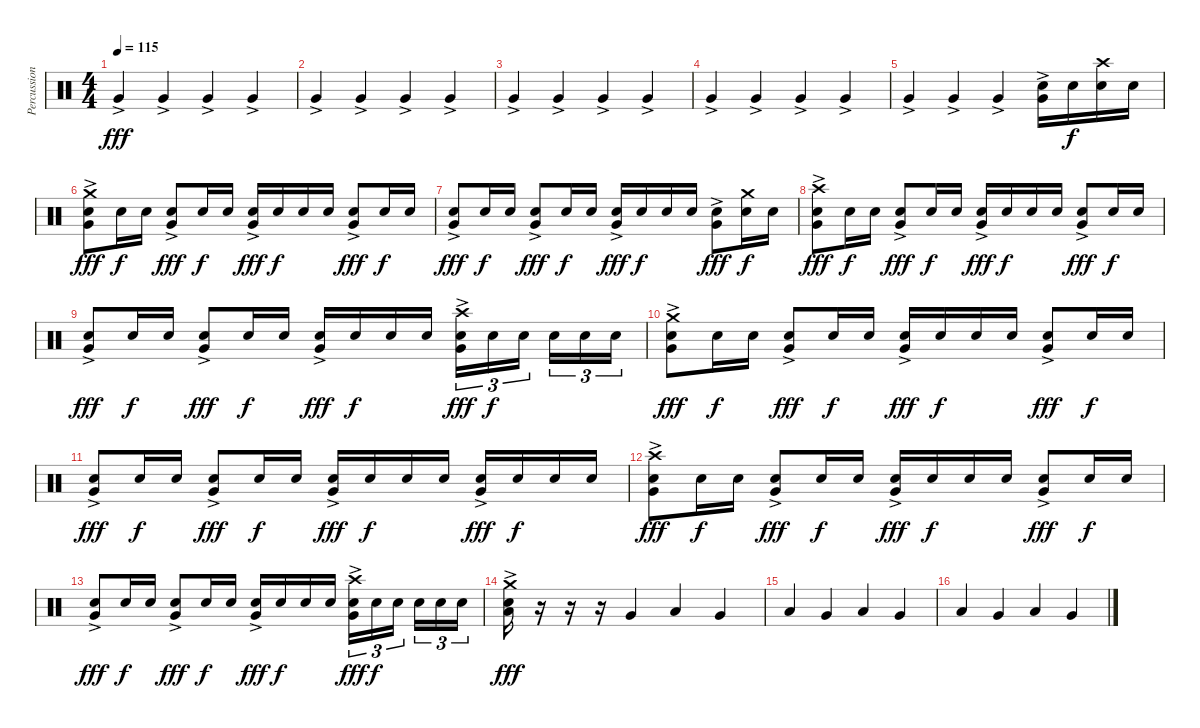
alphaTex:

\track ("Percussions" "Percussion") {instrument percussion}
\staff {score}
\articulation defaults
\ts (4 4)
\tempo 115
\clef neutral
\ks c "Very Low Tom (hit)"{ac}.4{dy fff} "Very Low Tom (hit)"{ac}.4 "Very Low Tom (hit)"{ac}.4 "Very Low Tom (hit)"{ac}.4
|
"Very Low Tom (hit)"{ac}.4 "Very Low Tom (hit)"{ac}.4 "Very Low Tom (hit)"{ac}.4 "Very Low Tom (hit)"{ac}.4 |
"Very Low Tom (hit)"{ac}.4 "Very Low Tom (hit)"{ac}.4 "Very Low Tom (hit)"{ac}.4 "Very Low Tom (hit)"{ac}.4 |
"Very Low Tom (hit)"{ac}.4 "Very Low Tom (hit)"{ac}.4 "Very Low Tom (hit)"{ac}.4 "Very Low Tom (hit)"{ac}.4 |
"Very Low Tom (hit)"{ac}.4 "Very Low Tom (hit)"{ac}.4 "Very Low Tom (hit)"{ac}.4 ("Electric Snare (hit)" "Very Low Tom (hit)"{ac}).16 "Electric Snare (hit)".16{dy f} ("Crash high (hit)" "Electric Snare (hit)").16 "Electric Snare (hit)".16 |
\section ("" "")
("Crash medium (hit)" "Electric Snare (hit)" "Very Low Tom (hit)"{ac}).8{dy fff} "Electric Snare (hit)".16{dy f} "Electric Snare (hit)".16 ("Electric Snare (hit)" "Very Low Tom (hit)"{ac}).8{dy fff} "Electric Snare (hit)".16{dy f} "Electric Snare (hit)".16 ("Electric Snare (hit)" "Very Low Tom (hit)"{ac}).16{dy fff} "Electric Snare (hit)".16{dy f} "Electric Snare (hit)".16 "Electric Snare (hit)".16 ("Electric Snare (hit)" "Very Low Tom (hit)"{ac}).8{dy fff} "Electric Snare (hit)".16{dy f} "Electric Snare (hit)".16 |
("Electric Snare (hit)" "Very Low Tom (hit)"{ac}).8{dy fff} "Electric Snare (hit)".16{dy f} "Electric Snare (hit)".16 ("Electric Snare (hit)" "Very Low Tom (hit)"{ac}).8{dy fff} "Electric Snare (hit)".16{dy f} "Electric Snare (hit)".16 ("Electric Snare (hit)" "Very Low Tom (hit)"{ac}).16{dy fff} "Electric Snare (hit)".16{dy f} "Electric Snare (hit)".16 "Electric Snare (hit)".16 ("Electric Snare (hit)" "Very Low Tom (hit)"{ac}).8{dy fff} ("Crash medium (hit)" "Electric Snare (hit)").16{dy f} "Electric Snare (hit)".16 |
("Crash high (hit)" "Electric Snare (hit)" "Very Low Tom (hit)"{ac}).8{dy fff} "Electric Snare (hit)".16{dy f} "Electric Snare (hit)".16 ("Electric Snare (hit)" "Very Low Tom (hit)"{ac}).8{dy fff} "Electric Snare (hit)".16{dy f} "Electric Snare (hit)".16 ("Electric Snare (hit)" "Very Low Tom (hit)"{ac}).16{dy fff} "Electric Snare (hit)".16{dy f} "Electric Snare (hit)".16 "Electric Snare (hit)".16 ("Electric Snare (hit)" "Very Low Tom (hit)"{ac}).8{dy fff} "Electric Snare (hit)".16{dy f} "Electric Snare (hit)".16 |
("Electric Snare (hit)" "Very Low Tom (hit)"{ac}).8{dy fff} "Electric Snare (hit)".16{dy f} "Electric Snare (hit)".16 ("Electric Snare (hit)" "Very Low Tom (hit)"{ac}).8{dy fff} "Electric Snare (hit)".16{dy f} "Electric Snare (hit)".16 ("Electric Snare (hit)" "Very Low Tom (hit)"{ac}).16{dy fff} "Electric Snare (hit)".16{dy f} "Electric Snare (hit)".16 "Electric Snare (hit)".16 ("Crash high (hit)" "Electric Snare (hit)" "Very Low Tom (hit)"{ac}).16{tu (3 2) dy fff} "Electric Snare (hit)".16{tu (3 2) dy f} "Electric Snare (hit)".16{tu (3 2)} "Electric Snare (hit)".16{tu (3 2)} "Electric Snare (hit)".16{tu (3 2)} "Electric Snare (hit)".16{tu (3 2)} |
("Crash medium (hit)" "Electric Snare (hit)" "Very Low Tom (hit)"{ac}).8{dy fff} "Electric Snare (hit)".16{dy f} "Electric Snare (hit)".16 ("Electric Snare (hit)" "Very Low Tom (hit)"{ac}).8{dy fff} "Electric Snare (hit)".16{dy f} "Electric Snare (hit)".16 ("Electric Snare (hit)" "Very Low Tom (hit)"{ac}).16{dy fff} "Electric Snare (hit)".16{dy f} "Electric Snare (hit)".16 "Electric Snare (hit)".16 ("Electric Snare (hit)" "Very Low Tom (hit)"{ac}).8{dy fff} "Electric Snare (hit)".16{dy f} "Electric Snare (hit)".16 |
("Electric Snare (hit)" "Very Low Tom (hit)"{ac}).8{dy fff} "Electric Snare (hit)".16{dy f} "Electric Snare (hit)".16 ("Electric Snare (hit)" "Very Low Tom (hit)"{ac}).8{dy fff} "Electric Snare (hit)".16{dy f} "Electric Snare (hit)".16 ("Electric Snare (hit)" "Very Low Tom (hit)"{ac}).16{dy fff} "Electric Snare (hit)".16{dy f} "Electric Snare (hit)".16 "Electric Snare (hit)".16 ("Electric Snare (hit)" "Very Low Tom (hit)"{ac}).16{dy fff} "Electric Snare (hit)".16{dy f} "Electric Snare (hit)".16 "Electric Snare (hit)".16 |
("Crash high (hit)" "Electric Snare (hit)" "Very Low Tom (hit)"{ac}).8{dy fff} "Electric Snare (hit)".16{dy f} "Electric Snare (hit)".16 ("Electric Snare (hit)" "Very Low Tom (hit)"{ac}).8{dy fff} "Electric Snare (hit)".16{dy f} "Electric Snare (hit)".16 ("Electric Snare (hit)" "Very Low Tom (hit)"{ac}).16{dy fff} "Electric Snare (hit)".16{dy f} "Electric Snare (hit)".16 "Electric Snare (hit)".16 ("Electric Snare (hit)" "Very Low Tom (hit)"{ac}).8{dy fff} "Electric Snare (hit)".16{dy f} "Electric Snare (hit)".16 |
("Electric Snare (hit)" "Very Low Tom (hit)"{ac}).8{dy fff} "Electric Snare (hit)".16{dy f} "Electric Snare (hit)".16 ("Electric Snare (hit)" "Very Low Tom (hit)"{ac}).8{dy fff} "Electric Snare (hit)".16{dy f} "Electric Snare (hit)".16 ("Electric Snare (hit)" "Very Low Tom (hit)"{ac}).16{dy fff} "Electric Snare (hit)".16{dy f} "Electric Snare (hit)".16 "Electric Snare (hit)".16 ("Crash high (hit)" "Electric Snare (hit)" "Very Low Tom (hit)"{ac}).16{tu (3 2) dy fff} "Electric Snare (hit)".16{tu (3 2) dy f} "Electric Snare (hit)".16{tu (3 2)} "Electric Snare (hit)".16{tu (3 2)} "Electric Snare (hit)".16{tu (3 2)} "Electric Snare (hit)".16{tu (3 2)} |
("Crash medium (hit)" "Electric Snare (hit)" "Low Tom (hit)"{ac}).16{dy fff} r.16 r.16 r.16 "Very Low Tom (hit)".4 "Low Tom (hit)".4 "Very Low Tom (hit)".4 |
"Low Tom (hit)".4 "Very Low Tom (hit)".4 "Low Tom (hit)".4 "Very Low Tom (hit)".4 |
"Low Tom (hit)".4 "Very Low Tom (hit)".4 "Low Tom (hit)".4 "Very Low Tom (hit)".4
